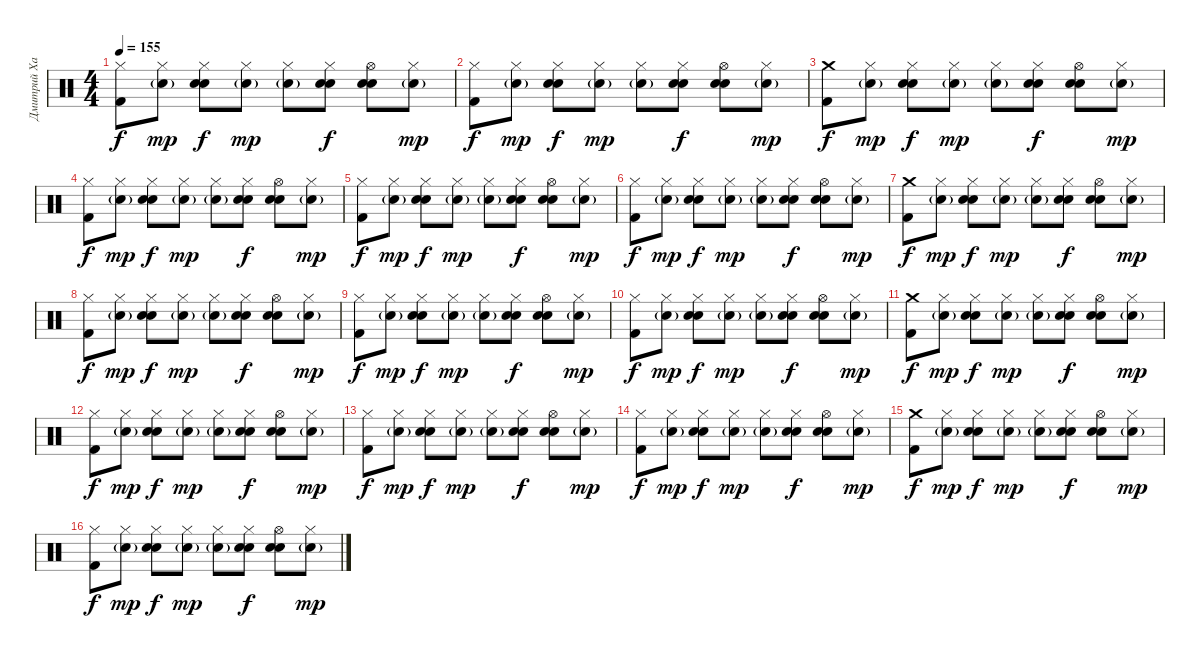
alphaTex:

\track ("Дмитрий Хакимов" "Дмитрий Ха") {instrument percussion}
\staff {score}
\articulation defaults
\ts (4 4)
\tempo 155
\clef neutral
\ks c
("Hi-Hat (closed)" "Kick (hit) 2").8{dy f} ("Hi-Hat (closed)" "Electric Snare (hit)"{g}).8{dy mp} ("Hi-Hat (closed)" "Electric Snare (hit)" "Hand Clap (hit)").8{dy f} ("Hi-Hat (closed)" "Electric Snare (hit)"{g}).8{dy mp} ("Hi-Hat (closed)" "Electric Snare (hit)"{g}).8 ("Hi-Hat (closed)" "Electric Snare (hit)" "Hand Clap (hit)").8{dy f} ("Hi-Hat (open)" "Electric Snare (hit)" "Hand Clap (hit)").8 ("Hi-Hat (closed)" "Electric Snare (hit)"{g}).8{dy mp} |
("Hi-Hat (closed)" "Kick (hit) 2").8{dy f} ("Hi-Hat (closed)" "Electric Snare (hit)"{g}).8{dy mp} ("Hi-Hat (closed)" "Electric Snare (hit)" "Hand Clap (hit)").8{dy f} ("Hi-Hat (closed)" "Electric Snare (hit)"{g}).8{dy mp} ("Hi-Hat (closed)" "Electric Snare (hit)"{g}).8 ("Hi-Hat (closed)" "Electric Snare (hit)" "Hand Clap (hit)").8{dy f} ("Hi-Hat (open)" "Electric Snare (hit)" "Hand Clap (hit)").8 ("Hi-Hat (closed)" "Electric Snare (hit)"{g}).8{dy mp} |
("Crash medium (hit)" "Kick (hit) 2").8{dy f} ("Hi-Hat (closed)" "Electric Snare (hit)"{g}).8{dy mp} ("Hi-Hat (closed)" "Electric Snare (hit)" "Hand Clap (hit)").8{dy f} ("Hi-Hat (closed)" "Electric Snare (hit)"{g}).8{dy mp} ("Hi-Hat (closed)" "Electric Snare (hit)"{g}).8 ("Hi-Hat (closed)" "Electric Snare (hit)" "Hand Clap (hit)").8{dy f} ("Hi-Hat (open)" "Electric Snare (hit)" "Hand Clap (hit)").8 ("Hi-Hat (closed)" "Electric Snare (hit)"{g}).8{dy mp} |
("Hi-Hat (closed)" "Kick (hit) 2").8{dy f} ("Hi-Hat (closed)" "Electric Snare (hit)"{g}).8{dy mp} ("Hi-Hat (closed)" "Electric Snare (hit)" "Hand Clap (hit)").8{dy f} ("Hi-Hat (closed)" "Electric Snare (hit)"{g}).8{dy mp} ("Hi-Hat (closed)" "Electric Snare (hit)"{g}).8 ("Hi-Hat (closed)" "Electric Snare (hit)" "Hand Clap (hit)").8{dy f} ("Hi-Hat (open)" "Electric Snare (hit)" "Hand Clap (hit)").8 ("Hi-Hat (closed)" "Electric Snare (hit)"{g}).8{dy mp} |
("Hi-Hat (closed)" "Kick (hit) 2").8{dy f} ("Hi-Hat (closed)" "Electric Snare (hit)"{g}).8{dy mp} ("Hi-Hat (closed)" "Electric Snare (hit)" "Hand Clap (hit)").8{dy f} ("Hi-Hat (closed)" "Electric Snare (hit)"{g}).8{dy mp} ("Hi-Hat (closed)" "Electric Snare (hit)"{g}).8 ("Hi-Hat (closed)" "Electric Snare (hit)" "Hand Clap (hit)").8{dy f} ("Hi-Hat (open)" "Electric Snare (hit)" "Hand Clap (hit)").8 ("Hi-Hat (closed)" "Electric Snare (hit)"{g}).8{dy mp} |
("Hi-Hat (closed)" "Kick (hit) 2").8{dy f} ("Hi-Hat (closed)" "Electric Snare (hit)"{g}).8{dy mp} ("Hi-Hat (closed)" "Electric Snare (hit)" "Hand Clap (hit)").8{dy f} ("Hi-Hat (closed)" "Electric Snare (hit)"{g}).8{dy mp} ("Hi-Hat (closed)" "Electric Snare (hit)"{g}).8 ("Hi-Hat (closed)" "Electric Snare (hit)" "Hand Clap (hit)").8{dy f} ("Hi-Hat (open)" "Electric Snare (hit)" "Hand Clap (hit)").8 ("Hi-Hat (closed)" "Electric Snare (hit)"{g}).8{dy mp} |
("Crash medium (hit)" "Kick (hit) 2").8{dy f} ("Hi-Hat (closed)" "Electric Snare (hit)"{g}).8{dy mp} ("Hi-Hat (closed)" "Electric Snare (hit)" "Hand Clap (hit)").8{dy f} ("Hi-Hat (closed)" "Electric Snare (hit)"{g}).8{dy mp} ("Hi-Hat (closed)" "Electric Snare (hit)"{g}).8 ("Hi-Hat (closed)" "Electric Snare (hit)" "Hand Clap (hit)").8{dy f} ("Hi-Hat (open)" "Electric Snare (hit)" "Hand Clap (hit)").8 ("Hi-Hat (closed)" "Electric Snare (hit)"{g}).8{dy mp} |
("Hi-Hat (closed)" "Kick (hit) 2").8{dy f} ("Hi-Hat (closed)" "Electric Snare (hit)"{g}).8{dy mp} ("Hi-Hat (closed)" "Electric Snare (hit)" "Hand Clap (hit)").8{dy f} ("Hi-Hat (closed)" "Electric Snare (hit)"{g}).8{dy mp} ("Hi-Hat (closed)" "Electric Snare (hit)"{g}).8 ("Hi-Hat (closed)" "Electric Snare (hit)" "Hand Clap (hit)").8{dy f} ("Hi-Hat (open)" "Electric Snare (hit)" "Hand Clap (hit)").8 ("Hi-Hat (closed)" "Electric Snare (hit)"{g}).8{dy mp} |
("Hi-Hat (closed)" "Kick (hit) 2").8{dy f} ("Hi-Hat (closed)" "Electric Snare (hit)"{g}).8{dy mp} ("Hi-Hat (closed)" "Electric Snare (hit)" "Hand Clap (hit)").8{dy f} ("Hi-Hat (closed)" "Electric Snare (hit)"{g}).8{dy mp} ("Hi-Hat (closed)" "Electric Snare (hit)"{g}).8 ("Hi-Hat (closed)" "Electric Snare (hit)" "Hand Clap (hit)").8{dy f} ("Hi-Hat (open)" "Electric Snare (hit)" "Hand Clap (hit)").8 ("Hi-Hat (closed)" "Electric Snare (hit)"{g}).8{dy mp} |
("Hi-Hat (closed)" "Kick (hit) 2").8{dy f} ("Hi-Hat (closed)" "Electric Snare (hit)"{g}).8{dy mp} ("Hi-Hat (closed)" "Electric Snare (hit)" "Hand Clap (hit)").8{dy f} ("Hi-Hat (closed)" "Electric Snare (hit)"{g}).8{dy mp} ("Hi-Hat (closed)" "Electric Snare (hit)"{g}).8 ("Hi-Hat (closed)" "Electric Snare (hit)" "Hand Clap (hit)").8{dy f} ("Hi-Hat (open)" "Electric Snare (hit)" "Hand Clap (hit)").8 ("Hi-Hat (closed)" "Electric Snare (hit)"{g}).8{dy mp} |
("Crash medium (hit)" "Kick (hit) 2").8{dy f} ("Hi-Hat (closed)" "Electric Snare (hit)"{g}).8{dy mp} ("Hi-Hat (closed)" "Electric Snare (hit)" "Hand Clap (hit)").8{dy f} ("Hi-Hat (closed)" "Electric Snare (hit)"{g}).8{dy mp} ("Hi-Hat (closed)" "Electric Snare (hit)"{g}).8 ("Hi-Hat (closed)" "Electric Snare (hit)" "Hand Clap (hit)").8{dy f} ("Hi-Hat (open)" "Electric Snare (hit)" "Hand Clap (hit)").8 ("Hi-Hat (closed)" "Electric Snare (hit)"{g}).8{dy mp} |
("Hi-Hat (closed)" "Kick (hit) 2").8{dy f} ("Hi-Hat (closed)" "Electric Snare (hit)"{g}).8{dy mp} ("Hi-Hat (closed)" "Electric Snare (hit)" "Hand Clap (hit)").8{dy f} ("Hi-Hat (closed)" "Electric Snare (hit)"{g}).8{dy mp} ("Hi-Hat (closed)" "Electric Snare (hit)"{g}).8 ("Hi-Hat (closed)" "Electric Snare (hit)" "Hand Clap (hit)").8{dy f} ("Hi-Hat (open)" "Electric Snare (hit)" "Hand Clap (hit)").8 ("Hi-Hat (closed)" "Electric Snare (hit)"{g}).8{dy mp} |
("Hi-Hat (closed)" "Kick (hit) 2").8{dy f} ("Hi-Hat (closed)" "Electric Snare (hit)"{g}).8{dy mp} ("Hi-Hat (closed)" "Electric Snare (hit)" "Hand Clap (hit)").8{dy f} ("Hi-Hat (closed)" "Electric Snare (hit)"{g}).8{dy mp} ("Hi-Hat (closed)" "Electric Snare (hit)"{g}).8 ("Hi-Hat (closed)" "Electric Snare (hit)" "Hand Clap (hit)").8{dy f} ("Hi-Hat (open)" "Electric Snare (hit)" "Hand Clap (hit)").8 ("Hi-Hat (closed)" "Electric Snare (hit)"{g}).8{dy mp} |
("Hi-Hat (closed)" "Kick (hit) 2").8{dy f} ("Hi-Hat (closed)" "Electric Snare (hit)"{g}).8{dy mp} ("Hi-Hat (closed)" "Electric Snare (hit)" "Hand Clap (hit)").8{dy f} ("Hi-Hat (closed)" "Electric Snare (hit)"{g}).8{dy mp} ("Hi-Hat (closed)" "Electric Snare (hit)"{g}).8 ("Hi-Hat (closed)" "Electric Snare (hit)" "Hand Clap (hit)").8{dy f} ("Hi-Hat (open)" "Electric Snare (hit)" "Hand Clap (hit)").8 ("Hi-Hat (closed)" "Electric Snare (hit)"{g}).8{dy mp} |
("Crash medium (hit)" "Kick (hit) 2").8{dy f} ("Hi-Hat (closed)" "Electric Snare (hit)"{g}).8{dy mp} ("Hi-Hat (closed)" "Electric Snare (hit)" "Hand Clap (hit)").8{dy f} ("Hi-Hat (closed)" "Electric Snare (hit)"{g}).8{dy mp} ("Hi-Hat (closed)" "Electric Snare (hit)"{g}).8 ("Hi-Hat (closed)" "Electric Snare (hit)" "Hand Clap (hit)").8{dy f} ("Hi-Hat (open)" "Electric Snare (hit)" "Hand Clap (hit)").8 ("Hi-Hat (closed)" "Electric Snare (hit)"{g}).8{dy mp} |
("Hi-Hat (closed)" "Kick (hit) 2").8{dy f} ("Hi-Hat (closed)" "Electric Snare (hit)"{g}).8{dy mp} ("Hi-Hat (closed)" "Electric Snare (hit)" "Hand Clap (hit)").8{dy f} ("Hi-Hat (closed)" "Electric Snare (hit)"{g}).8{dy mp} ("Hi-Hat (closed)" "Electric Snare (hit)"{g}).8 ("Hi-Hat (closed)" "Electric Snare (hit)" "Hand Clap (hit)").8{dy f} ("Hi-Hat (open)" "Electric Snare (hit)" "Hand Clap (hit)").8 ("Hi-Hat (closed)" "Electric Snare (hit)"{g}).8{dy mp}
